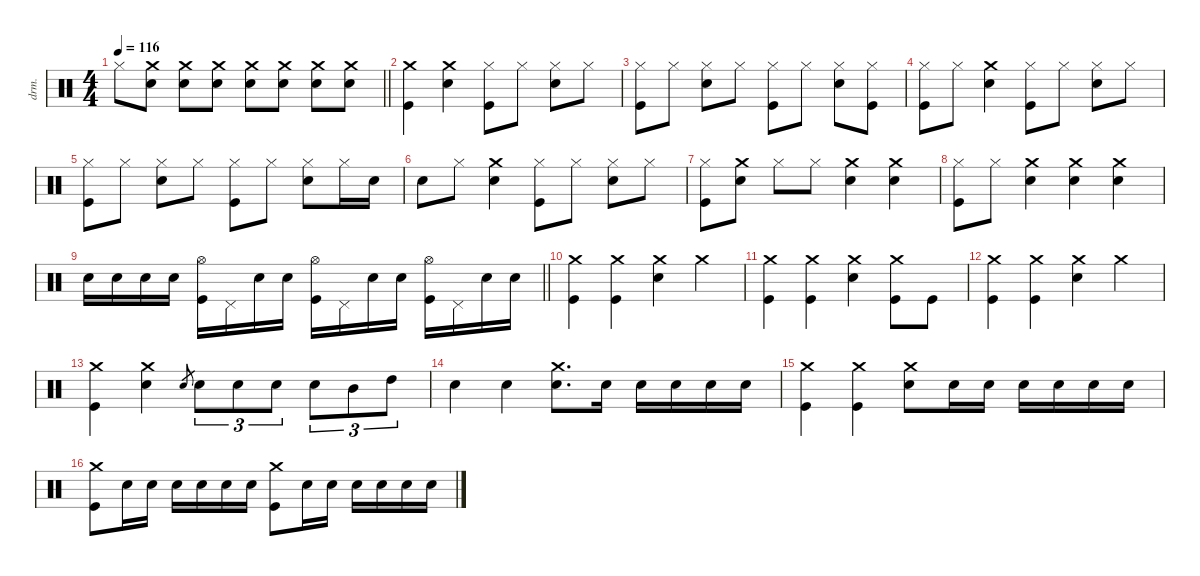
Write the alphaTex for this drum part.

\defaultSystemsLayout 4
\hideDynamics
\bracketExtendMode nobrackets
\otherSystemsTrackNameOrientation horizontal
\track ("Drum" "drm.") {instrument percussion}
\staff {score}
\articulation defaults
\ts (4 4)
\tempo 116
\clef neutral
\barLineRight lightlight
\ks c "Hi-Hat (closed)".8{dy f beam Down}
("Snare (hit) 2" "Crash medium (hit)").8{beam Down} ("Snare (hit) 2" "Crash medium (hit)").8{beam Down} ("Snare (hit) 2" "Crash medium (hit)").8{beam Down} ("Snare (hit) 2" "Crash medium (hit)").8{beam Down} ("Snare (hit) 2" "Crash medium (hit)").8{beam Down} ("Snare (hit) 2" "Crash medium (hit)").8{beam Down} ("Snare (hit) 2" "Crash medium (hit)").8{beam Down} |
("Kick (hit)" "Crash medium (hit)").4{beam Down} ("Snare (hit) 2" "Crash medium (hit)").4{beam Down} ("Kick (hit)" "Hi-Hat (closed)").8{beam Down} "Hi-Hat (closed)".8{beam Down} ("Snare (hit) 2" "Hi-Hat (closed)").8{beam Down} "Hi-Hat (closed)".8{beam Down} |
("Kick (hit)" "Hi-Hat (closed)").8{beam Down} "Hi-Hat (closed)".8{beam Down} ("Snare (hit) 2" "Hi-Hat (closed)").8{beam Down} "Hi-Hat (closed)".8{beam Down} ("Kick (hit)" "Hi-Hat (closed)").8{beam Down} "Hi-Hat (closed)".8{beam Down} ("Snare (hit) 2" "Hi-Hat (closed)").8{beam Down} ("Kick (hit)" "Hi-Hat (closed)").8{beam Down} |
("Kick (hit)" "Hi-Hat (closed)").8{beam Down} "Hi-Hat (closed)".8{beam Down} ("Snare (hit) 2" "Crash medium (hit)").4{beam Down} ("Kick (hit)" "Hi-Hat (closed)").8{beam Down} "Hi-Hat (closed)".8{beam Down} ("Snare (hit) 2" "Hi-Hat (closed)").8{beam Down} "Hi-Hat (closed)".8{beam Down} |
("Kick (hit)" "Hi-Hat (closed)").8{beam Down} "Hi-Hat (closed)".8{beam Down} ("Snare (hit) 2" "Hi-Hat (closed)").8{beam Down} "Hi-Hat (closed)".8{beam Down} ("Kick (hit)" "Hi-Hat (closed)").8{beam Down} "Hi-Hat (closed)".8{beam Down} ("Snare (hit) 2" "Hi-Hat (closed)").8{beam Down} "Hi-Hat (closed)".16{beam Down} "Snare (hit) 2".16{beam Down} |
"Snare (hit) 2".8{beam Down} "Hi-Hat (closed)".8{beam Down} ("Snare (hit) 2" "Crash medium (hit)").4{beam Down} ("Kick (hit)" "Hi-Hat (closed)").8{beam Down} "Hi-Hat (closed)".8{beam Down} ("Snare (hit) 2" "Hi-Hat (closed)").8{beam Down} "Hi-Hat (closed)".8{beam Down} |
("Kick (hit)" "Hi-Hat (closed)").8{beam Down} ("Snare (hit) 2" "Crash medium (hit)").8{beam Down} "Hi-Hat (closed)".8{beam Down} "Hi-Hat (closed)".8{beam Down} ("Snare (hit) 2" "Crash medium (hit)").4{beam Down} ("Snare (hit) 2" "Crash medium (hit)").4{beam Down} |
("Kick (hit)" "Hi-Hat (closed)").8{beam Down} "Hi-Hat (closed)".8{beam Down} ("Snare (hit) 2" "Crash medium (hit)").4{beam Down} ("Snare (hit) 2" "Crash medium (hit)").4{beam Down} ("Snare (hit) 2" "Crash medium (hit)").4{beam Down} |
\barLineRight lightlight "Snare (hit) 2".16{beam Down} "Snare (hit) 2".16{beam Down} "Snare (hit) 2".16{beam Down} "Snare (hit) 2".16{beam Down}
("Kick (hit)" "Hi-Hat (open)").16{beam Down} "Pedal Hi-Hat (hit)".16{beam Down} "Snare (hit) 2".16{beam Down} "Snare (hit) 2".16{beam Down} ("Kick (hit)" "Hi-Hat (open)").16{beam Down} "Pedal Hi-Hat (hit)".16{beam Down} "Snare (hit) 2".16{beam Down} "Snare (hit) 2".16{beam Down} ("Kick (hit)" "Hi-Hat (open)").16{beam Down} "Pedal Hi-Hat (hit)".16{beam Down} "Snare (hit) 2".16{beam Down} "Snare (hit) 2".16{beam Down} |
("Kick (hit)" "Crash medium (hit)").4{beam Down} ("Kick (hit)" "Crash medium (hit)").4{beam Down} ("Snare (hit) 2" "Crash medium (hit)").4{beam Down} "Crash medium (hit)".4{beam Down} |
("Kick (hit)" "Crash medium (hit)").4{beam Down} ("Kick (hit)" "Crash medium (hit)").4{beam Down} ("Snare (hit) 2" "Crash medium (hit)").4{beam Down} ("Kick (hit)" "Crash medium (hit)").8{beam Down} "Kick (hit)".8{beam Down} |
("Kick (hit)" "Crash medium (hit)").4{beam Down} ("Kick (hit)" "Crash medium (hit)").4{beam Down} ("Snare (hit) 2" "Crash medium (hit)").4{beam Down} "Crash medium (hit)".4{beam Down} |
("Kick (hit)" "Crash medium (hit)").4{beam Down} ("Snare (hit) 2" "Crash medium (hit)").4{beam Down} "Electric Snare (hit)".8{gr dy mf beam Up} "Snare (hit) 2".8{tu (3 2) dy f beam Down} "Snare (hit) 2".8{tu (3 2) beam Down} "Snare (hit) 2".8{tu (3 2) beam Down} "Snare (hit) 2".8{tu (3 2) beam Down} "Mid Tom (hit)".8{tu (3 2) beam Down} "High Tom (hit)".8{tu (3 2) beam Down} |
"Snare (hit) 2".4{beam Down} "Snare (hit) 2".4{beam Down} ("Snare (hit) 2" "Crash medium (hit)").8{d beam Down} "Snare (hit) 2".16{beam Down} "Snare (hit) 2".16{beam Down} "Snare (hit) 2".16{beam Down} "Snare (hit) 2".16{beam Down} "Snare (hit) 2".16{beam Down} |
("Kick (hit)" "Crash medium (hit)").4{beam Down} ("Kick (hit)" "Crash medium (hit)").4{beam Down} ("Snare (hit) 2" "Crash medium (hit)").8{beam Down} "Snare (hit) 2".16{beam Down} "Snare (hit) 2".16{beam Down} "Snare (hit) 2".16{beam Down} "Snare (hit) 2".16{beam Down} "Snare (hit) 2".16{beam Down} "Snare (hit) 2".16{beam Down} |
("Kick (hit)" "Crash medium (hit)").8{beam Down} "Snare (hit) 2".16{beam Down} "Snare (hit) 2".16{beam Down} "Snare (hit) 2".16{beam Down} "Snare (hit) 2".16{beam Down} "Snare (hit) 2".16{beam Down} "Snare (hit) 2".16{beam Down} ("Kick (hit)" "Crash medium (hit)").8{beam Down} "Snare (hit) 2".16{beam Down} "Snare (hit) 2".16{beam Down} "Snare (hit) 2".16{beam Down} "Snare (hit) 2".16{beam Down} "Snare (hit) 2".16{beam Down} "Snare (hit) 2".16{beam Down}
